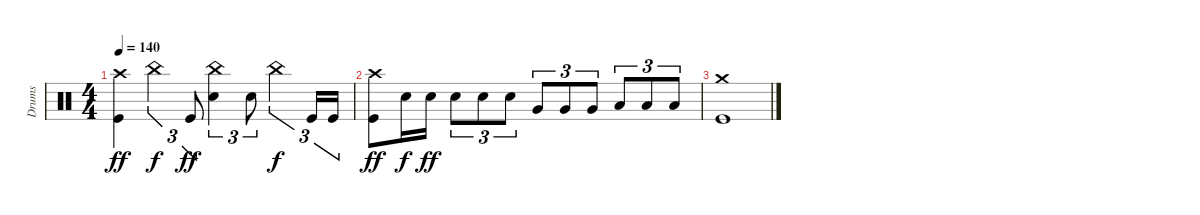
\track ("Drums" "Drums") {instrument percussion}
\staff {score}
\articulation defaults
\ts (4 4)
\tempo 140
\clef neutral
\ks c
("Crash high (hit)" "Kick (hit)").4{dy ff} "China (hit)".4{tu (3 2) dy f} "Kick (hit)".8{tu (3 2) dy ff} ("China (hit)" "Electric Snare (hit)").4{tu (3 2)} "Electric Snare (hit)".8{tu (3 2)} "China (hit)".4{tu (3 2) dy f} "Kick (hit)".16{tu (3 2)} "Kick (hit)".16{tu (3 2)} |
("Crash high (hit)" "Kick (hit)").8{dy ff} "Electric Snare (hit)".16{dy f} "Electric Snare (hit)".16{dy ff} "Electric Snare (hit)".8{tu (3 2)} "Electric Snare (hit)".8{tu (3 2)} "Electric Snare (hit)".8{tu (3 2)} "Very Low Tom (hit)".8{tu (3 2)} "Very Low Tom (hit)".8{tu (3 2)} "Very Low Tom (hit)".8{tu (3 2)} "Low Floor Tom (hit)".8{tu (3 2)} "Low Floor Tom (hit)".8{tu (3 2)} "Low Floor Tom (hit)".8{tu (3 2)} |
("Crash medium (hit)" "Kick (hit)").1
